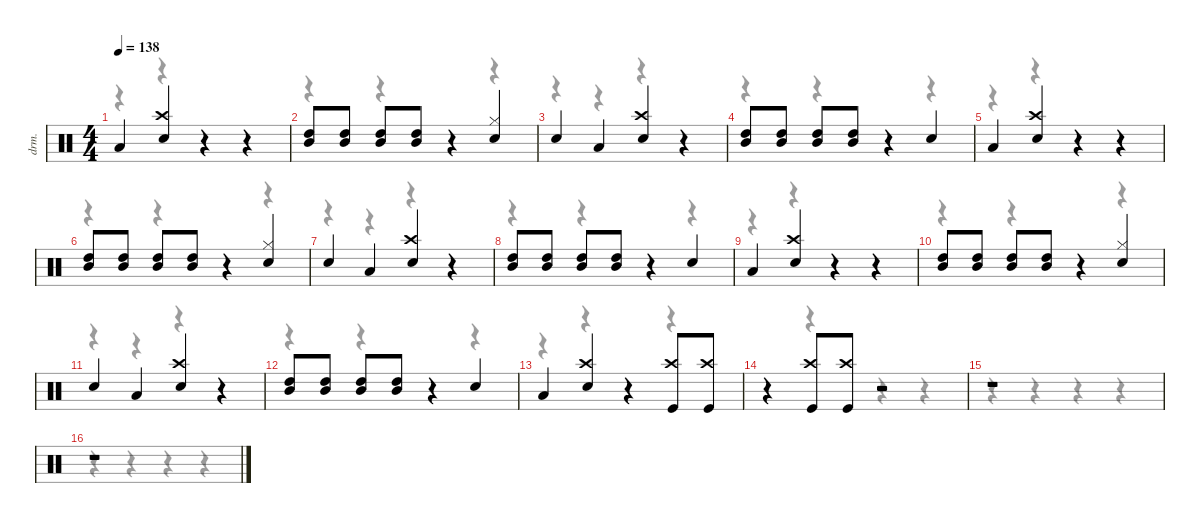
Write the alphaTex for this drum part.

\defaultSystemsLayout 4
\hideDynamics
\bracketExtendMode nobrackets
\track ("Drumkit" "drm.") {instrument percussion}
\staff {score}
\articulation defaults
\voice
\ts (4 4)
\tempo 138
\clef neutral
\ks c "Low Tom (hit)".4{dy f}
("Crash high (hit)" "Snare (hit) 2").4 r.4 r.4 |
("High Tom (hit)" "Mid Tom (hit)").8 ("Mid Tom (hit)" "High Tom (hit)").8 ("Mid Tom (hit)" "High Tom (hit)").8 ("Mid Tom (hit)" "High Tom (hit)").8 r.4 ("Hi-Hat (closed)" "Snare (hit) 2").4 |
"Snare (hit) 2".4 "Low Tom (hit)".4 ("Crash high (hit)" "Snare (hit) 2").4 r.4 |
("High Tom (hit)" "Mid Tom (hit)").8 ("Mid Tom (hit)" "High Tom (hit)").8 ("Mid Tom (hit)" "High Tom (hit)").8 ("Mid Tom (hit)" "High Tom (hit)").8 r.4 "Snare (hit) 2".4 |
"Low Tom (hit)".4 ("Crash high (hit)" "Snare (hit) 2").4 r.4 r.4 |
("High Tom (hit)" "Mid Tom (hit)").8 ("Mid Tom (hit)" "High Tom (hit)").8 ("Mid Tom (hit)" "High Tom (hit)").8 ("Mid Tom (hit)" "High Tom (hit)").8 r.4 ("Hi-Hat (closed)" "Snare (hit) 2").4 |
"Snare (hit) 2".4 "Low Tom (hit)".4 ("Crash high (hit)" "Snare (hit) 2").4 r.4 |
("High Tom (hit)" "Mid Tom (hit)").8 ("Mid Tom (hit)" "High Tom (hit)").8 ("Mid Tom (hit)" "High Tom (hit)").8 ("Mid Tom (hit)" "High Tom (hit)").8 r.4 "Snare (hit) 2".4 |
"Low Tom (hit)".4 ("Crash high (hit)" "Snare (hit) 2").4 r.4 r.4 |
("High Tom (hit)" "Mid Tom (hit)").8 ("Mid Tom (hit)" "High Tom (hit)").8 ("Mid Tom (hit)" "High Tom (hit)").8 ("Mid Tom (hit)" "High Tom (hit)").8 r.4 ("Hi-Hat (closed)" "Snare (hit) 2").4 |
"Snare (hit) 2".4 "Low Tom (hit)".4 ("Crash high (hit)" "Snare (hit) 2").4 r.4 |
("High Tom (hit)" "Mid Tom (hit)").8 ("Mid Tom (hit)" "High Tom (hit)").8 ("Mid Tom (hit)" "High Tom (hit)").8 ("Mid Tom (hit)" "High Tom (hit)").8 r.4 "Snare (hit) 2".4 |
"Low Tom (hit)".4 ("Crash high (hit)" "Snare (hit) 2").4 r.4 ("Kick (hit)" "Crash high (hit)").8 ("Kick (hit)" "Crash high (hit)").8 |
r.4 ("Kick (hit)" "Crash high (hit)").8 ("Kick (hit)" "Crash high (hit)").8 r.2 |
r.1 |
r.1
\voice
\clef neutral
\ottava regular
\simile none
\ks c
r.4{dy mf} r.4 r.4 r.4 |
r.4 r.4 r.4 r.4 |
r.4 r.4 r.4 r.4 |
r.4 r.4 r.4 r.4 |
r.4 r.4 r.4 r.4 |
r.4 r.4 r.4 r.4 |
r.4 r.4 r.4 r.4 |
r.4 r.4 r.4 r.4 |
r.4 r.4 r.4 r.4 |
r.4 r.4 r.4 r.4 |
r.4 r.4 r.4 r.4 |
r.4 r.4 r.4 r.4 |
r.4 r.4 r.4 r.4 |
r.4 r.4 r.4 r.4 |
r.4 r.4 r.4 r.4 |
r.4 r.4 r.4 r.4
